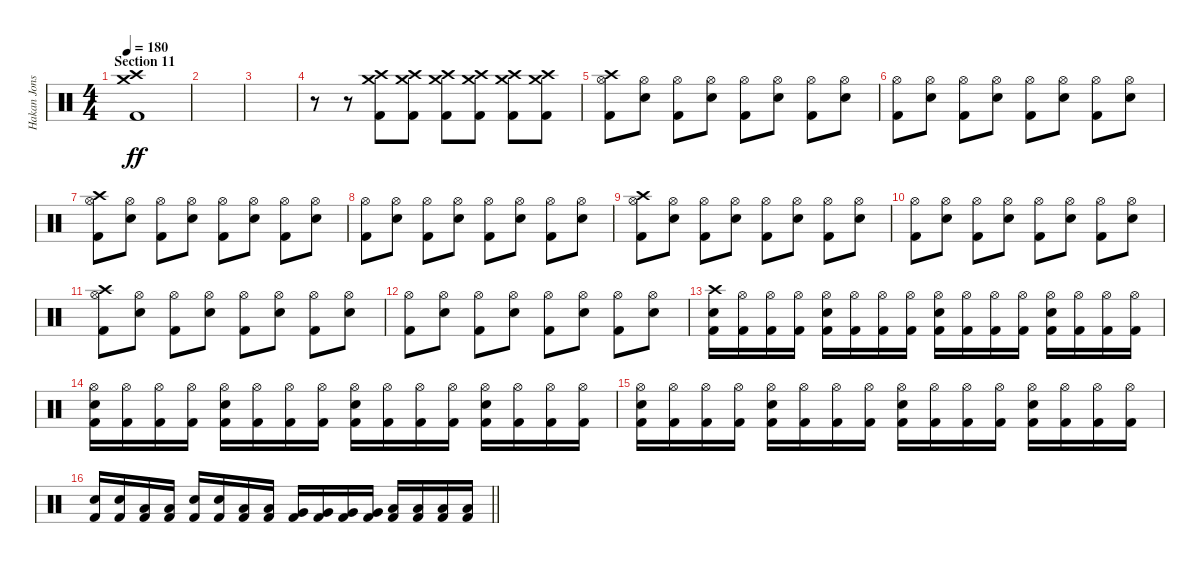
\track ("Hakan Jonsson" "Hakan Jons") {instrument percussion}
\staff {score}
\articulation defaults
\ts (4 4)
\section ("" "Section 11")
\tempo 180
\clef neutral
\ks c
("Crash high (hit)" "Crash medium (hit)" "Kick (hit) 2").1{dy ff} |
|
|
r.8 r.8 ("Crash high (hit)" "Crash medium (hit)" "Kick (hit) 2").8 ("Crash high (hit)" "Crash medium (hit)" "Kick (hit) 2").8 ("Crash high (hit)" "Crash medium (hit)" "Kick (hit) 2").8 ("Crash high (hit)" "Crash medium (hit)" "Kick (hit) 2").8 ("Crash high (hit)" "Crash medium (hit)" "Kick (hit) 2").8 ("Crash high (hit)" "Crash medium (hit)" "Kick (hit) 2").8 |
("Crash high (hit)" "Hi-Hat (open)" "Kick (hit) 2").8 ("Hi-Hat (open)" "Electric Snare (hit)").8 ("Hi-Hat (open)" "Kick (hit) 2").8 ("Hi-Hat (open)" "Electric Snare (hit)").8 ("Hi-Hat (open)" "Kick (hit) 2").8 ("Hi-Hat (open)" "Electric Snare (hit)").8 ("Hi-Hat (open)" "Kick (hit) 2").8 ("Hi-Hat (open)" "Electric Snare (hit)").8 |
("Hi-Hat (open)" "Kick (hit) 2").8 ("Hi-Hat (open)" "Electric Snare (hit)").8 ("Hi-Hat (open)" "Kick (hit) 2").8 ("Hi-Hat (open)" "Electric Snare (hit)").8 ("Hi-Hat (open)" "Kick (hit) 2").8 ("Hi-Hat (open)" "Electric Snare (hit)").8 ("Hi-Hat (open)" "Kick (hit) 2").8 ("Hi-Hat (open)" "Electric Snare (hit)").8 |
("Crash high (hit)" "Hi-Hat (open)" "Kick (hit) 2").8 ("Hi-Hat (open)" "Electric Snare (hit)").8 ("Hi-Hat (open)" "Kick (hit) 2").8 ("Hi-Hat (open)" "Electric Snare (hit)").8 ("Hi-Hat (open)" "Kick (hit) 2").8 ("Hi-Hat (open)" "Electric Snare (hit)").8 ("Hi-Hat (open)" "Kick (hit) 2").8 ("Hi-Hat (open)" "Electric Snare (hit)").8 |
("Hi-Hat (open)" "Kick (hit) 2").8 ("Hi-Hat (open)" "Electric Snare (hit)").8 ("Hi-Hat (open)" "Kick (hit) 2").8 ("Hi-Hat (open)" "Electric Snare (hit)").8 ("Hi-Hat (open)" "Kick (hit) 2").8 ("Hi-Hat (open)" "Electric Snare (hit)").8 ("Hi-Hat (open)" "Kick (hit) 2").8 ("Hi-Hat (open)" "Electric Snare (hit)").8 |
("Crash high (hit)" "Hi-Hat (open)" "Kick (hit) 2").8 ("Hi-Hat (open)" "Electric Snare (hit)").8 ("Hi-Hat (open)" "Kick (hit) 2").8 ("Hi-Hat (open)" "Electric Snare (hit)").8 ("Hi-Hat (open)" "Kick (hit) 2").8 ("Hi-Hat (open)" "Electric Snare (hit)").8 ("Hi-Hat (open)" "Kick (hit) 2").8 ("Hi-Hat (open)" "Electric Snare (hit)").8 |
("Hi-Hat (open)" "Kick (hit) 2").8 ("Hi-Hat (open)" "Electric Snare (hit)").8 ("Hi-Hat (open)" "Kick (hit) 2").8 ("Hi-Hat (open)" "Electric Snare (hit)").8 ("Hi-Hat (open)" "Kick (hit) 2").8 ("Hi-Hat (open)" "Electric Snare (hit)").8 ("Hi-Hat (open)" "Kick (hit) 2").8 ("Hi-Hat (open)" "Electric Snare (hit)").8 |
("Crash high (hit)" "Hi-Hat (open)" "Kick (hit) 2").8 ("Hi-Hat (open)" "Electric Snare (hit)").8 ("Hi-Hat (open)" "Kick (hit) 2").8 ("Hi-Hat (open)" "Electric Snare (hit)").8 ("Hi-Hat (open)" "Kick (hit) 2").8 ("Hi-Hat (open)" "Electric Snare (hit)").8 ("Hi-Hat (open)" "Kick (hit) 2").8 ("Hi-Hat (open)" "Electric Snare (hit)").8 |
("Hi-Hat (open)" "Kick (hit) 2").8 ("Hi-Hat (open)" "Electric Snare (hit)").8 ("Hi-Hat (open)" "Kick (hit) 2").8 ("Hi-Hat (open)" "Electric Snare (hit)").8 ("Hi-Hat (open)" "Kick (hit) 2").8 ("Hi-Hat (open)" "Electric Snare (hit)").8 ("Hi-Hat (open)" "Kick (hit) 2").8 ("Hi-Hat (open)" "Electric Snare (hit)").8 |
("Crash high (hit)" "Electric Snare (hit)" "Kick (hit) 2").16 ("Hi-Hat (open)" "Kick (hit) 2").16 ("Hi-Hat (open)" "Kick (hit) 2").16 ("Hi-Hat (open)" "Kick (hit) 2").16 ("Hi-Hat (open)" "Electric Snare (hit)" "Kick (hit) 2").16 ("Hi-Hat (open)" "Kick (hit) 2").16 ("Hi-Hat (open)" "Kick (hit) 2").16 ("Hi-Hat (open)" "Kick (hit) 2").16 ("Hi-Hat (open)" "Electric Snare (hit)" "Kick (hit) 2").16 ("Hi-Hat (open)" "Kick (hit) 2").16 ("Hi-Hat (open)" "Kick (hit) 2").16 ("Hi-Hat (open)" "Kick (hit) 2").16 ("Hi-Hat (open)" "Electric Snare (hit)" "Kick (hit) 2").16 ("Hi-Hat (open)" "Kick (hit) 2").16 ("Hi-Hat (open)" "Kick (hit) 2").16 ("Hi-Hat (open)" "Kick (hit) 2").16 |
("Hi-Hat (open)" "Electric Snare (hit)" "Kick (hit) 2").16 ("Hi-Hat (open)" "Kick (hit) 2").16 ("Hi-Hat (open)" "Kick (hit) 2").16 ("Hi-Hat (open)" "Kick (hit) 2").16 ("Hi-Hat (open)" "Electric Snare (hit)" "Kick (hit) 2").16 ("Hi-Hat (open)" "Kick (hit) 2").16 ("Hi-Hat (open)" "Kick (hit) 2").16 ("Hi-Hat (open)" "Kick (hit) 2").16 ("Hi-Hat (open)" "Electric Snare (hit)" "Kick (hit) 2").16 ("Hi-Hat (open)" "Kick (hit) 2").16 ("Hi-Hat (open)" "Kick (hit) 2").16 ("Hi-Hat (open)" "Kick (hit) 2").16 ("Hi-Hat (open)" "Electric Snare (hit)" "Kick (hit) 2").16 ("Hi-Hat (open)" "Kick (hit) 2").16 ("Hi-Hat (open)" "Kick (hit) 2").16 ("Hi-Hat (open)" "Kick (hit) 2").16 |
("Hi-Hat (open)" "Electric Snare (hit)" "Kick (hit) 2").16 ("Hi-Hat (open)" "Kick (hit) 2").16 ("Hi-Hat (open)" "Kick (hit) 2").16 ("Hi-Hat (open)" "Kick (hit) 2").16 ("Hi-Hat (open)" "Electric Snare (hit)" "Kick (hit) 2").16 ("Hi-Hat (open)" "Kick (hit) 2").16 ("Hi-Hat (open)" "Kick (hit) 2").16 ("Hi-Hat (open)" "Kick (hit) 2").16 ("Hi-Hat (open)" "Electric Snare (hit)" "Kick (hit) 2").16 ("Hi-Hat (open)" "Kick (hit) 2").16 ("Hi-Hat (open)" "Kick (hit) 2").16 ("Hi-Hat (open)" "Kick (hit) 2").16 ("Hi-Hat (open)" "Electric Snare (hit)" "Kick (hit) 2").16 ("Hi-Hat (open)" "Kick (hit) 2").16 ("Hi-Hat (open)" "Kick (hit) 2").16 ("Hi-Hat (open)" "Kick (hit) 2").16 |
\barLineRight lightlight
("Electric Snare (hit)" "Kick (hit) 2").16 ("Electric Snare (hit)" "Kick (hit) 2").16 ("Low Tom (hit)" "Kick (hit) 2").16 ("Low Tom (hit)" "Kick (hit) 2").16 ("Electric Snare (hit)" "Kick (hit) 2").16 ("Electric Snare (hit)" "Kick (hit) 2").16 ("Low Tom (hit)" "Kick (hit) 2").16 ("Low Tom (hit)" "Kick (hit) 2").16 ("Very Low Tom (hit)" "Kick (hit) 2").16 ("Very Low Tom (hit)" "Kick (hit) 2").16 ("Very Low Tom (hit)" "Kick (hit) 2").16 ("Very Low Tom (hit)" "Kick (hit) 2").16 ("Low Floor Tom (hit)" "Kick (hit) 2").16 ("Low Floor Tom (hit)" "Kick (hit) 2").16 ("Low Floor Tom (hit)" "Kick (hit) 2").16 ("Low Floor Tom (hit)" "Kick (hit) 2").16
